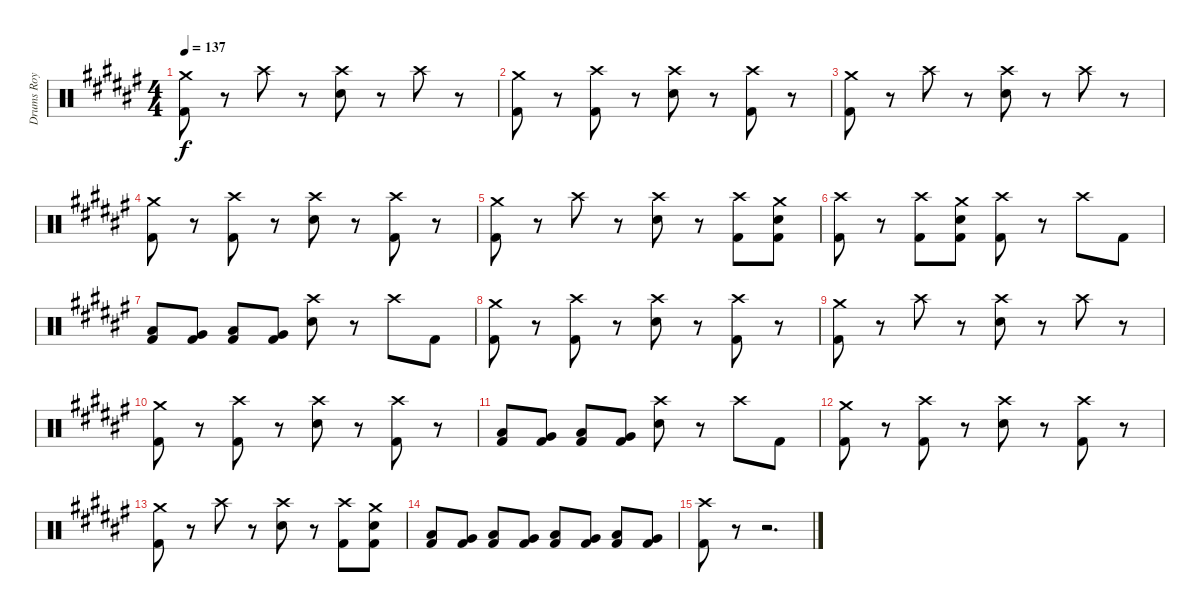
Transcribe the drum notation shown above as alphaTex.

\track ("Drums Roy mayorga" "Drums Roy ") {instrument percussion}
\staff {score}
\articulation defaults
\ts (4 4)
\tempo 137
\clef neutral
\ks d#minor
("Crash medium (hit)" "Kick (hit) 2").8{dy f} r.8 "Crash high (hit)".8 r.8 ("Crash high (hit)" "Electric Snare (hit)").8 r.8 "Crash high (hit)".8 r.8 |
("Crash medium (hit)" "Kick (hit) 2").8 r.8 ("Crash high (hit)" "Kick (hit) 2").8 r.8 ("Crash high (hit)" "Electric Snare (hit)").8 r.8 ("Crash high (hit)" "Kick (hit) 2").8 r.8 |
("Crash medium (hit)" "Kick (hit) 2").8 r.8 "Crash high (hit)".8 r.8 ("Crash high (hit)" "Electric Snare (hit)").8 r.8 "Crash high (hit)".8 r.8 |
("Crash medium (hit)" "Kick (hit) 2").8 r.8 ("Crash high (hit)" "Kick (hit) 2").8 r.8 ("Crash high (hit)" "Electric Snare (hit)").8 r.8 ("Crash high (hit)" "Kick (hit) 2").8 r.8 |
("Crash medium (hit)" "Kick (hit) 2").8 r.8 "Crash high (hit)".8 r.8 ("Crash high (hit)" "Electric Snare (hit)").8 r.8 ("Crash high (hit)" "Kick (hit) 2").8 ("Crash medium (hit)" "Electric Snare (hit)" "Kick (hit) 2").8 |
("Crash high (hit)" "Kick (hit) 2").8 r.8 ("Crash high (hit)" "Kick (hit) 2").8 ("Crash medium (hit)" "Electric Snare (hit)" "Kick (hit) 2").8 ("Crash high (hit)" "Kick (hit) 2").8 r.8 "Crash high (hit)".8 "Kick (hit) 2".8 |
("Low Tom (hit)" "Kick (hit) 2").8 ("Very Low Tom (hit)" "Kick (hit) 2").8 ("Low Tom (hit)" "Kick (hit) 2").8 ("Very Low Tom (hit)" "Kick (hit) 2").8 ("Crash high (hit)" "Electric Snare (hit)").8 r.8 "Crash high (hit)".8 "Kick (hit) 2".8 |
("Crash medium (hit)" "Kick (hit) 2").8 r.8 ("Crash high (hit)" "Kick (hit) 2").8 r.8 ("Crash high (hit)" "Electric Snare (hit)").8 r.8 ("Crash high (hit)" "Kick (hit) 2").8 r.8 |
("Crash medium (hit)" "Kick (hit) 2").8 r.8 "Crash high (hit)".8 r.8 ("Crash high (hit)" "Electric Snare (hit)").8 r.8 "Crash high (hit)".8 r.8 |
("Crash medium (hit)" "Kick (hit) 2").8 r.8 ("Crash high (hit)" "Kick (hit) 2").8 r.8 ("Crash high (hit)" "Electric Snare (hit)").8 r.8 ("Crash high (hit)" "Kick (hit) 2").8 r.8 |
("Low Tom (hit)" "Kick (hit) 2").8 ("Very Low Tom (hit)" "Kick (hit) 2").8 ("Low Tom (hit)" "Kick (hit) 2").8 ("Very Low Tom (hit)" "Kick (hit) 2").8 ("Crash high (hit)" "Electric Snare (hit)").8 r.8 "Crash high (hit)".8 "Kick (hit) 2".8 |
("Crash medium (hit)" "Kick (hit) 2").8 r.8 ("Crash high (hit)" "Kick (hit) 2").8 r.8 ("Crash high (hit)" "Electric Snare (hit)").8 r.8 ("Crash high (hit)" "Kick (hit) 2").8 r.8 |
("Crash medium (hit)" "Kick (hit) 2").8 r.8 "Crash high (hit)".8 r.8 ("Crash high (hit)" "Electric Snare (hit)").8 r.8 ("Crash high (hit)" "Kick (hit) 2").8 ("Crash medium (hit)" "Electric Snare (hit)" "Kick (hit) 2").8 |
("Low Tom (hit)" "Kick (hit) 2").8 ("Very Low Tom (hit)" "Kick (hit) 2").8 ("Low Tom (hit)" "Kick (hit) 2").8 ("Very Low Tom (hit)" "Kick (hit) 2").8 ("Low Tom (hit)" "Kick (hit) 2").8 ("Very Low Tom (hit)" "Kick (hit) 2").8 ("Low Tom (hit)" "Kick (hit) 2").8 ("Very Low Tom (hit)" "Kick (hit) 2").8 |
("Crash high (hit)" "Kick (hit) 2").8 r.8 r.2{d}
